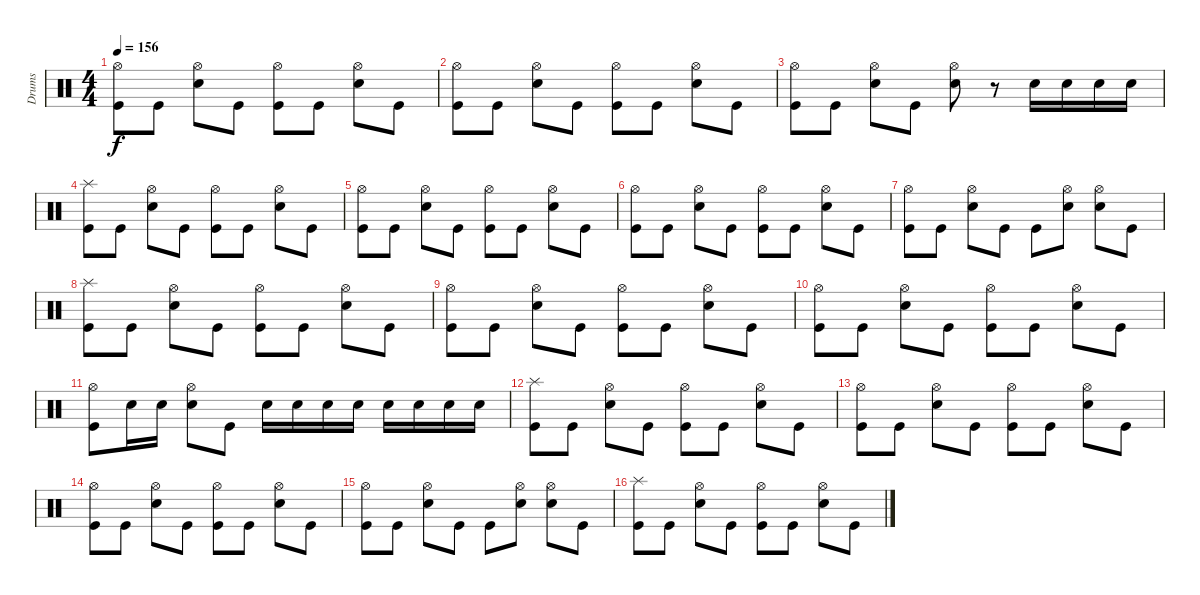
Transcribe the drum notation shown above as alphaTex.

\track ("Drums" "Drums") {instrument percussion}
\staff {score}
\articulation defaults
\ts (4 4)
\tempo 156
\clef neutral
\ks c
("Kick (hit)" "Hi-Hat (open)").8{dy f} "Kick (hit)".8 ("Snare (hit) 2" "Hi-Hat (open)").8 "Kick (hit)".8 ("Kick (hit)" "Hi-Hat (open)").8 "Kick (hit)".8 ("Snare (hit) 2" "Hi-Hat (open)").8 "Kick (hit)".8 |
("Kick (hit)" "Hi-Hat (open)").8 "Kick (hit)".8 ("Snare (hit) 2" "Hi-Hat (open)").8 "Kick (hit)".8 ("Kick (hit)" "Hi-Hat (open)").8 "Kick (hit)".8 ("Snare (hit) 2" "Hi-Hat (open)").8 "Kick (hit)".8 |
("Kick (hit)" "Hi-Hat (open)").8 "Kick (hit)".8 ("Snare (hit) 2" "Hi-Hat (open)").8 "Kick (hit)".8 ("Snare (hit) 2" "Hi-Hat (open)").8 r.8 "Snare (hit) 2".16 "Snare (hit) 2".16 "Snare (hit) 2".16 "Snare (hit) 2".16 |
("Kick (hit)" "Splash (hit)").8 "Kick (hit)".8 ("Snare (hit) 2" "Hi-Hat (open)").8 "Kick (hit)".8 ("Kick (hit)" "Hi-Hat (open)").8 "Kick (hit)".8 ("Snare (hit) 2" "Hi-Hat (open)").8 "Kick (hit)".8 |
("Kick (hit)" "Hi-Hat (open)").8 "Kick (hit)".8 ("Snare (hit) 2" "Hi-Hat (open)").8 "Kick (hit)".8 ("Kick (hit)" "Hi-Hat (open)").8 "Kick (hit)".8 ("Snare (hit) 2" "Hi-Hat (open)").8 "Kick (hit)".8 |
("Kick (hit)" "Hi-Hat (open)").8 "Kick (hit)".8 ("Snare (hit) 2" "Hi-Hat (open)").8 "Kick (hit)".8 ("Kick (hit)" "Hi-Hat (open)").8 "Kick (hit)".8 ("Snare (hit) 2" "Hi-Hat (open)").8 "Kick (hit)".8 |
("Kick (hit)" "Hi-Hat (open)").8 "Kick (hit)".8 ("Snare (hit) 2" "Hi-Hat (open)").8 "Kick (hit)".8 "Kick (hit)".8 ("Snare (hit) 2" "Hi-Hat (open)").8 ("Snare (hit) 2" "Hi-Hat (open)").8 "Kick (hit)".8 |
("Kick (hit)" "Splash (hit)").8 "Kick (hit)".8 ("Snare (hit) 2" "Hi-Hat (open)").8 "Kick (hit)".8 ("Kick (hit)" "Hi-Hat (open)").8 "Kick (hit)".8 ("Snare (hit) 2" "Hi-Hat (open)").8 "Kick (hit)".8 |
("Kick (hit)" "Hi-Hat (open)").8 "Kick (hit)".8 ("Snare (hit) 2" "Hi-Hat (open)").8 "Kick (hit)".8 ("Kick (hit)" "Hi-Hat (open)").8 "Kick (hit)".8 ("Snare (hit) 2" "Hi-Hat (open)").8 "Kick (hit)".8 |
("Kick (hit)" "Hi-Hat (open)").8 "Kick (hit)".8 ("Snare (hit) 2" "Hi-Hat (open)").8 "Kick (hit)".8 ("Kick (hit)" "Hi-Hat (open)").8 "Kick (hit)".8 ("Snare (hit) 2" "Hi-Hat (open)").8 "Kick (hit)".8 |
("Kick (hit)" "Hi-Hat (open)").8 "Snare (hit) 2".16 "Snare (hit) 2".16 ("Snare (hit) 2" "Hi-Hat (open)").8 "Kick (hit)".8 "Snare (hit) 2".16 "Snare (hit) 2".16 "Snare (hit) 2".16 "Snare (hit) 2".16 "Snare (hit) 2".16 "Snare (hit) 2".16 "Snare (hit) 2".16 "Snare (hit) 2".16 |
("Kick (hit)" "Splash (hit)").8 "Kick (hit)".8 ("Snare (hit) 2" "Hi-Hat (open)").8 "Kick (hit)".8 ("Kick (hit)" "Hi-Hat (open)").8 "Kick (hit)".8 ("Snare (hit) 2" "Hi-Hat (open)").8 "Kick (hit)".8 |
("Kick (hit)" "Hi-Hat (open)").8 "Kick (hit)".8 ("Snare (hit) 2" "Hi-Hat (open)").8 "Kick (hit)".8 ("Kick (hit)" "Hi-Hat (open)").8 "Kick (hit)".8 ("Snare (hit) 2" "Hi-Hat (open)").8 "Kick (hit)".8 |
("Kick (hit)" "Hi-Hat (open)").8 "Kick (hit)".8 ("Snare (hit) 2" "Hi-Hat (open)").8 "Kick (hit)".8 ("Kick (hit)" "Hi-Hat (open)").8 "Kick (hit)".8 ("Snare (hit) 2" "Hi-Hat (open)").8 "Kick (hit)".8 |
("Kick (hit)" "Hi-Hat (open)").8 "Kick (hit)".8 ("Snare (hit) 2" "Hi-Hat (open)").8 "Kick (hit)".8 "Kick (hit)".8 ("Snare (hit) 2" "Hi-Hat (open)").8 ("Snare (hit) 2" "Hi-Hat (open)").8 "Kick (hit)".8 |
("Kick (hit)" "Splash (hit)").8 "Kick (hit)".8 ("Snare (hit) 2" "Hi-Hat (open)").8 "Kick (hit)".8 ("Kick (hit)" "Hi-Hat (open)").8 "Kick (hit)".8 ("Snare (hit) 2" "Hi-Hat (open)").8 "Kick (hit)".8
